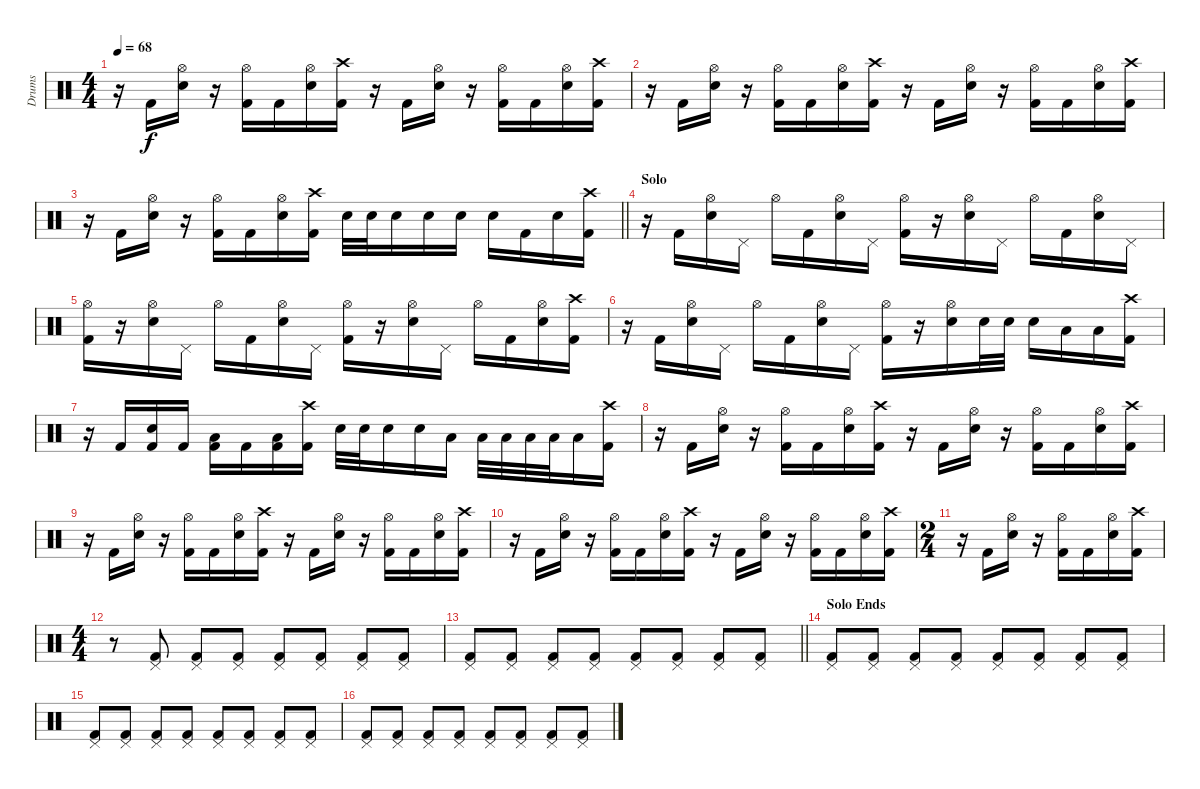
\track ("Drums" "Drums") {instrument percussion}
\staff {score}
\articulation defaults
\ts (4 4)
\tempo 68
\clef neutral
\ks c
r.16{dy f} "Kick (hit) 2".16 ("Hi-Hat (open)" "Snare (hit) 2").16 r.16 ("Hi-Hat (open)" "Kick (hit) 2").16 "Kick (hit) 2".16 ("Hi-Hat (open)" "Snare (hit) 2").16 ("Crash high (hit)" "Kick (hit) 2").16 r.16 "Kick (hit) 2".16 ("Hi-Hat (open)" "Snare (hit) 2").16 r.16 ("Hi-Hat (open)" "Kick (hit) 2").16 "Kick (hit) 2".16 ("Hi-Hat (open)" "Snare (hit) 2").16 ("Crash high (hit)" "Kick (hit) 2").16 |
r.16 "Kick (hit) 2".16 ("Hi-Hat (open)" "Snare (hit) 2").16 r.16 ("Hi-Hat (open)" "Kick (hit) 2").16 "Kick (hit) 2".16 ("Hi-Hat (open)" "Snare (hit) 2").16 ("Crash high (hit)" "Kick (hit) 2").16 r.16 "Kick (hit) 2".16 ("Hi-Hat (open)" "Snare (hit) 2").16 r.16 ("Hi-Hat (open)" "Kick (hit) 2").16 "Kick (hit) 2".16 ("Hi-Hat (open)" "Snare (hit) 2").16 ("Crash high (hit)" "Kick (hit) 2").16 |
\barLineRight lightlight
r.16 "Kick (hit) 2".16 ("Hi-Hat (open)" "Snare (hit) 2").16 r.16 ("Hi-Hat (open)" "Kick (hit) 2").16 "Kick (hit) 2".16 ("Hi-Hat (open)" "Snare (hit) 2").16 ("Crash high (hit)" "Kick (hit) 2").16 "Snare (hit) 2".32 "Snare (hit) 2".32 "Snare (hit) 2".16 "Snare (hit) 2".16 "Snare (hit) 2".16 "Snare (hit) 2".16 "Kick (hit) 2".16 "Snare (hit) 2".16 ("Crash high (hit)" "Kick (hit) 2").16 |
\section ("" "Solo")
r.16 "Kick (hit) 2".16 ("Hi-Hat (open)" "Snare (hit) 2").16 "Pedal Hi-Hat (hit)".16 "Hi-Hat (open)".16 "Kick (hit) 2".16 ("Hi-Hat (open)" "Snare (hit) 2").16 "Pedal Hi-Hat (hit)".16 ("Hi-Hat (open)" "Kick (hit) 2").16 r.16 ("Hi-Hat (open)" "Snare (hit) 2").16 "Pedal Hi-Hat (hit)".16 "Hi-Hat (open)".16 "Kick (hit) 2".16 ("Hi-Hat (open)" "Snare (hit) 2").16 "Pedal Hi-Hat (hit)".16 |
("Hi-Hat (open)" "Kick (hit) 2").16 r.16 ("Hi-Hat (open)" "Snare (hit) 2").16 "Pedal Hi-Hat (hit)".16 "Hi-Hat (open)".16 "Kick (hit) 2".16 ("Hi-Hat (open)" "Snare (hit) 2").16 "Pedal Hi-Hat (hit)".16 ("Hi-Hat (open)" "Kick (hit) 2").16 r.16 ("Hi-Hat (open)" "Snare (hit) 2").16 "Pedal Hi-Hat (hit)".16 "Hi-Hat (open)".16 "Kick (hit) 2".16 ("Hi-Hat (open)" "Snare (hit) 2").16 ("Crash high (hit)" "Kick (hit) 2").16 |
r.16 "Kick (hit) 2".16 ("Hi-Hat (open)" "Snare (hit) 2").16 "Pedal Hi-Hat (hit)".16 "Hi-Hat (open)".16 "Kick (hit) 2".16 ("Hi-Hat (open)" "Snare (hit) 2").16 "Pedal Hi-Hat (hit)".16 ("Hi-Hat (open)" "Kick (hit) 2").16 r.16 ("Hi-Hat (open)" "Snare (hit) 2").16 "Snare (hit) 2".32 "Snare (hit) 2".32 "Snare (hit) 2".16 "Low Tom (hit)".16 "Low Tom (hit)".16 ("Crash high (hit)" "Kick (hit) 2").16 |
r.16 "Kick (hit) 2".16 ("Snare (hit) 2" "Kick (hit) 2").16 "Kick (hit) 2".16 ("Low Tom (hit)" "Kick (hit) 2").16 "Kick (hit) 2".16 ("Low Tom (hit)" "Kick (hit) 2").16 ("Crash high (hit)" "Kick (hit) 2").16 "Snare (hit) 2".32 "Snare (hit) 2".32 "Snare (hit) 2".16 "Snare (hit) 2".16 "Low Tom (hit)".16 "Low Tom (hit)".32 "Low Tom (hit)".32 "Low Tom (hit)".32 "Low Tom (hit)".32 "Low Tom (hit)".16 ("Crash high (hit)" "Kick (hit) 2").16 |
r.16 "Kick (hit) 2".16 ("Hi-Hat (open)" "Snare (hit) 2").16 r.16 ("Hi-Hat (open)" "Kick (hit) 2").16 "Kick (hit) 2".16 ("Hi-Hat (open)" "Snare (hit) 2").16 ("Crash high (hit)" "Kick (hit) 2").16 r.16 "Kick (hit) 2".16 ("Hi-Hat (open)" "Snare (hit) 2").16 r.16 ("Hi-Hat (open)" "Kick (hit) 2").16 "Kick (hit) 2".16 ("Hi-Hat (open)" "Snare (hit) 2").16 ("Crash high (hit)" "Kick (hit) 2").16 |
r.16 "Kick (hit) 2".16 ("Hi-Hat (open)" "Snare (hit) 2").16 r.16 ("Hi-Hat (open)" "Kick (hit) 2").16 "Kick (hit) 2".16 ("Hi-Hat (open)" "Snare (hit) 2").16 ("Crash high (hit)" "Kick (hit) 2").16 r.16 "Kick (hit) 2".16 ("Hi-Hat (open)" "Snare (hit) 2").16 r.16 ("Hi-Hat (open)" "Kick (hit) 2").16 "Kick (hit) 2".16 ("Hi-Hat (open)" "Snare (hit) 2").16 ("Crash high (hit)" "Kick (hit) 2").16 |
r.16 "Kick (hit) 2".16 ("Hi-Hat (open)" "Snare (hit) 2").16 r.16 ("Hi-Hat (open)" "Kick (hit) 2").16 "Kick (hit) 2".16 ("Hi-Hat (open)" "Snare (hit) 2").16 ("Crash high (hit)" "Kick (hit) 2").16 r.16 "Kick (hit) 2".16 ("Hi-Hat (open)" "Snare (hit) 2").16 r.16 ("Hi-Hat (open)" "Kick (hit) 2").16 "Kick (hit) 2".16 ("Hi-Hat (open)" "Snare (hit) 2").16 ("Crash high (hit)" "Kick (hit) 2").16 |
\ts (2 4)
r.16 "Kick (hit) 2".16 ("Hi-Hat (open)" "Snare (hit) 2").16 r.16 ("Hi-Hat (open)" "Kick (hit) 2").16 "Kick (hit) 2".16 ("Hi-Hat (open)" "Snare (hit) 2").16 ("Crash high (hit)" "Kick (hit) 2").16 |
\ts (4 4)
r.8 ("Pedal Hi-Hat (hit)" "Kick (hit) 2").8 ("Pedal Hi-Hat (hit)" "Kick (hit) 2").8 ("Pedal Hi-Hat (hit)" "Kick (hit) 2").8 ("Pedal Hi-Hat (hit)" "Kick (hit) 2").8 ("Pedal Hi-Hat (hit)" "Kick (hit) 2").8 ("Pedal Hi-Hat (hit)" "Kick (hit) 2").8 ("Pedal Hi-Hat (hit)" "Kick (hit) 2").8 |
\barLineRight lightlight
("Pedal Hi-Hat (hit)" "Kick (hit) 2").8 ("Pedal Hi-Hat (hit)" "Kick (hit) 2").8 ("Pedal Hi-Hat (hit)" "Kick (hit) 2").8 ("Pedal Hi-Hat (hit)" "Kick (hit) 2").8 ("Pedal Hi-Hat (hit)" "Kick (hit) 2").8 ("Pedal Hi-Hat (hit)" "Kick (hit) 2").8 ("Pedal Hi-Hat (hit)" "Kick (hit) 2").8 ("Pedal Hi-Hat (hit)" "Kick (hit) 2").8 |
\section ("" "Solo Ends")
("Pedal Hi-Hat (hit)" "Kick (hit) 2").8 ("Pedal Hi-Hat (hit)" "Kick (hit) 2").8 ("Pedal Hi-Hat (hit)" "Kick (hit) 2").8 ("Pedal Hi-Hat (hit)" "Kick (hit) 2").8 ("Pedal Hi-Hat (hit)" "Kick (hit) 2").8 ("Pedal Hi-Hat (hit)" "Kick (hit) 2").8 ("Pedal Hi-Hat (hit)" "Kick (hit) 2").8 ("Pedal Hi-Hat (hit)" "Kick (hit) 2").8 |
("Pedal Hi-Hat (hit)" "Kick (hit) 2").8 ("Pedal Hi-Hat (hit)" "Kick (hit) 2").8 ("Pedal Hi-Hat (hit)" "Kick (hit) 2").8 ("Pedal Hi-Hat (hit)" "Kick (hit) 2").8 ("Pedal Hi-Hat (hit)" "Kick (hit) 2").8 ("Pedal Hi-Hat (hit)" "Kick (hit) 2").8 ("Pedal Hi-Hat (hit)" "Kick (hit) 2").8 ("Pedal Hi-Hat (hit)" "Kick (hit) 2").8 |
("Pedal Hi-Hat (hit)" "Kick (hit) 2").8 ("Pedal Hi-Hat (hit)" "Kick (hit) 2").8 ("Pedal Hi-Hat (hit)" "Kick (hit) 2").8 ("Pedal Hi-Hat (hit)" "Kick (hit) 2").8 ("Pedal Hi-Hat (hit)" "Kick (hit) 2").8 ("Pedal Hi-Hat (hit)" "Kick (hit) 2").8 ("Pedal Hi-Hat (hit)" "Kick (hit) 2").8 ("Pedal Hi-Hat (hit)" "Kick (hit) 2").8
